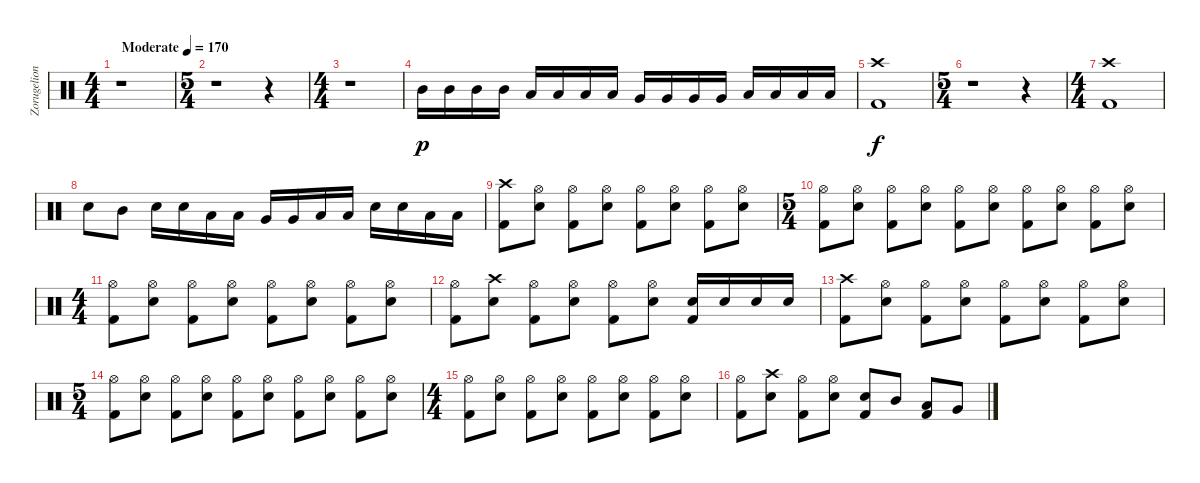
\track ("Zorugelion" "Zorugelion") {instrument percussion}
\staff {score}
\articulation defaults
\ts (4 4)
\tempo (170 "Moderate")
\clef neutral
\ks c
r.1{dy p} |
\ts (5 4)
r.1 r.4 |
\ts (4 4)
r.1 |
"Mid Tom (hit)".16 "Mid Tom (hit)".16 "Mid Tom (hit)".16 "Mid Tom (hit)".16 "Low Tom (hit)".16 "Low Tom (hit)".16 "Low Tom (hit)".16 "Low Tom (hit)".16 "Very Low Tom (hit)".16 "Very Low Tom (hit)".16 "Very Low Tom (hit)".16 "Very Low Tom (hit)".16 "Low Floor Tom (hit)".16 "Low Floor Tom (hit)".16 "Low Floor Tom (hit)".16 "Low Floor Tom (hit)".16 |
("Crash high (hit)" "Kick (hit) 2").1{dy f} |
\ts (5 4)
r.1 r.4 |
\ts (4 4)
("Crash high (hit)" "Kick (hit) 2").1 |
"Electric Snare (hit)".8 "Mid Tom (hit)".8 "Electric Snare (hit)".16 "Electric Snare (hit)".16 "Low Tom (hit)".16 "Low Tom (hit)".16 "Very Low Tom (hit)".16 "Very Low Tom (hit)".16 "Low Floor Tom (hit)".16 "Low Floor Tom (hit)".16 "Electric Snare (hit)".16 "Electric Snare (hit)".16 "Low Tom (hit)".16 "Low Tom (hit)".16 |
("Crash high (hit)" "Kick (hit) 2").8 ("Hi-Hat (open)" "Electric Snare (hit)").8 ("Hi-Hat (open)" "Kick (hit) 2").8 ("Hi-Hat (open)" "Electric Snare (hit)").8 ("Hi-Hat (open)" "Kick (hit) 2").8 ("Hi-Hat (open)" "Electric Snare (hit)").8 ("Hi-Hat (open)" "Kick (hit) 2").8 ("Hi-Hat (open)" "Electric Snare (hit)").8 |
\ts (5 4)
("Hi-Hat (open)" "Kick (hit) 2").8 ("Hi-Hat (open)" "Electric Snare (hit)").8 ("Hi-Hat (open)" "Kick (hit) 2").8 ("Hi-Hat (open)" "Electric Snare (hit)").8 ("Hi-Hat (open)" "Kick (hit) 2").8 ("Hi-Hat (open)" "Electric Snare (hit)").8 ("Hi-Hat (open)" "Kick (hit) 2").8 ("Hi-Hat (open)" "Electric Snare (hit)").8 ("Hi-Hat (open)" "Kick (hit) 2").8 ("Hi-Hat (open)" "Electric Snare (hit)").8 |
\ts (4 4)
("Hi-Hat (open)" "Kick (hit) 2").8 ("Hi-Hat (open)" "Electric Snare (hit)").8 ("Hi-Hat (open)" "Kick (hit) 2").8 ("Hi-Hat (open)" "Electric Snare (hit)").8 ("Hi-Hat (open)" "Kick (hit) 2").8 ("Hi-Hat (open)" "Electric Snare (hit)").8 ("Hi-Hat (open)" "Kick (hit) 2").8 ("Hi-Hat (open)" "Electric Snare (hit)").8 |
("Hi-Hat (open)" "Kick (hit) 2").8 ("Crash high (hit)" "Electric Snare (hit)").8 ("Hi-Hat (open)" "Kick (hit) 2").8 ("Hi-Hat (open)" "Electric Snare (hit)").8 ("Hi-Hat (open)" "Kick (hit) 2").8 ("Hi-Hat (open)" "Electric Snare (hit)").8 ("Electric Snare (hit)" "Kick (hit) 2").16 "Electric Snare (hit)".16 "Electric Snare (hit)".16 "Electric Snare (hit)".16 |
("Crash high (hit)" "Kick (hit) 2").8 ("Hi-Hat (open)" "Electric Snare (hit)").8 ("Hi-Hat (open)" "Kick (hit) 2").8 ("Hi-Hat (open)" "Electric Snare (hit)").8 ("Hi-Hat (open)" "Kick (hit) 2").8 ("Hi-Hat (open)" "Electric Snare (hit)").8 ("Hi-Hat (open)" "Kick (hit) 2").8 ("Hi-Hat (open)" "Electric Snare (hit)").8 |
\ts (5 4)
("Hi-Hat (open)" "Kick (hit) 2").8 ("Hi-Hat (open)" "Electric Snare (hit)").8 ("Hi-Hat (open)" "Kick (hit) 2").8 ("Hi-Hat (open)" "Electric Snare (hit)").8 ("Hi-Hat (open)" "Kick (hit) 2").8 ("Hi-Hat (open)" "Electric Snare (hit)").8 ("Hi-Hat (open)" "Kick (hit) 2").8 ("Hi-Hat (open)" "Electric Snare (hit)").8 ("Hi-Hat (open)" "Kick (hit) 2").8 ("Hi-Hat (open)" "Electric Snare (hit)").8 |
\ts (4 4)
("Hi-Hat (open)" "Kick (hit) 2").8 ("Hi-Hat (open)" "Electric Snare (hit)").8 ("Hi-Hat (open)" "Kick (hit) 2").8 ("Hi-Hat (open)" "Electric Snare (hit)").8 ("Hi-Hat (open)" "Kick (hit) 2").8 ("Hi-Hat (open)" "Electric Snare (hit)").8 ("Hi-Hat (open)" "Kick (hit) 2").8 ("Hi-Hat (open)" "Electric Snare (hit)").8 |
("Hi-Hat (open)" "Kick (hit) 2").8 ("Crash high (hit)" "Electric Snare (hit)").8 ("Hi-Hat (open)" "Kick (hit) 2").8 ("Hi-Hat (open)" "Electric Snare (hit)").8 ("Electric Snare (hit)" "Kick (hit) 2").8 "Mid Tom (hit)".8 ("Low Tom (hit)" "Kick (hit) 2").8 "Very Low Tom (hit)".8
